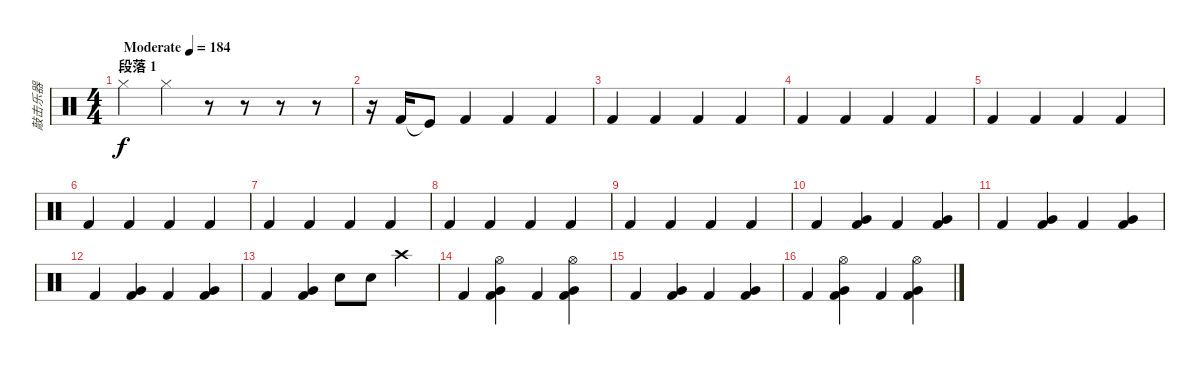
\track ("敲击乐器" "敲击乐器") {instrument percussion}
\staff {score}
\articulation defaults
\ts (4 4)
\section ("" "段落 1")
\tempo (184 "Moderate")
\clef neutral
\ks c "Hi-Hat (closed)".4{dy f} "Hi-Hat (closed)".4
r.8 r.8 r.8 r.8 |
r.16 "Kick (hit) 2".16 "Kick (hit)"{t}.8 "Kick (hit) 2".4 "Kick (hit) 2".4 "Kick (hit) 2".4 |
"Kick (hit) 2".4 "Kick (hit) 2".4 "Kick (hit) 2".4 "Kick (hit) 2".4 |
"Kick (hit) 2".4 "Kick (hit) 2".4 "Kick (hit) 2".4 "Kick (hit) 2".4 |
"Kick (hit) 2".4 "Kick (hit) 2".4 "Kick (hit) 2".4 "Kick (hit) 2".4 |
"Kick (hit) 2".4 "Kick (hit) 2".4 "Kick (hit) 2".4 "Kick (hit) 2".4 |
"Kick (hit) 2".4 "Kick (hit) 2".4 "Kick (hit) 2".4 "Kick (hit) 2".4 |
"Kick (hit) 2".4 "Kick (hit) 2".4 "Kick (hit) 2".4 "Kick (hit) 2".4 |
"Kick (hit) 2".4 "Kick (hit) 2".4 "Kick (hit) 2".4 "Kick (hit) 2".4 |
"Kick (hit) 2".4 ("Very Low Tom (hit)" "Kick (hit) 2").4 "Kick (hit) 2".4 ("Very Low Tom (hit)" "Kick (hit) 2").4 |
"Kick (hit) 2".4 ("Very Low Tom (hit)" "Kick (hit) 2").4 "Kick (hit) 2".4 ("Very Low Tom (hit)" "Kick (hit) 2").4 |
"Kick (hit) 2".4 ("Very Low Tom (hit)" "Kick (hit) 2").4 "Kick (hit) 2".4 ("Very Low Tom (hit)" "Kick (hit) 2").4 |
"Kick (hit) 2".4 ("Very Low Tom (hit)" "Kick (hit) 2").4 "Snare (hit) 2".8 "Snare (hit) 2".8 "Crash high (hit)".4 |
"Kick (hit) 2".4 ("Hi-Hat (open)" "Very Low Tom (hit)" "Kick (hit) 2").4 "Kick (hit) 2".4 ("Hi-Hat (open)" "Very Low Tom (hit)" "Kick (hit) 2").4 |
"Kick (hit) 2".4 ("Very Low Tom (hit)" "Kick (hit) 2").4 "Kick (hit) 2".4 ("Very Low Tom (hit)" "Kick (hit) 2").4 |
"Kick (hit) 2".4 ("Hi-Hat (open)" "Very Low Tom (hit)" "Kick (hit) 2").4 "Kick (hit) 2".4 ("Hi-Hat (open)" "Very Low Tom (hit)" "Kick (hit) 2").4
